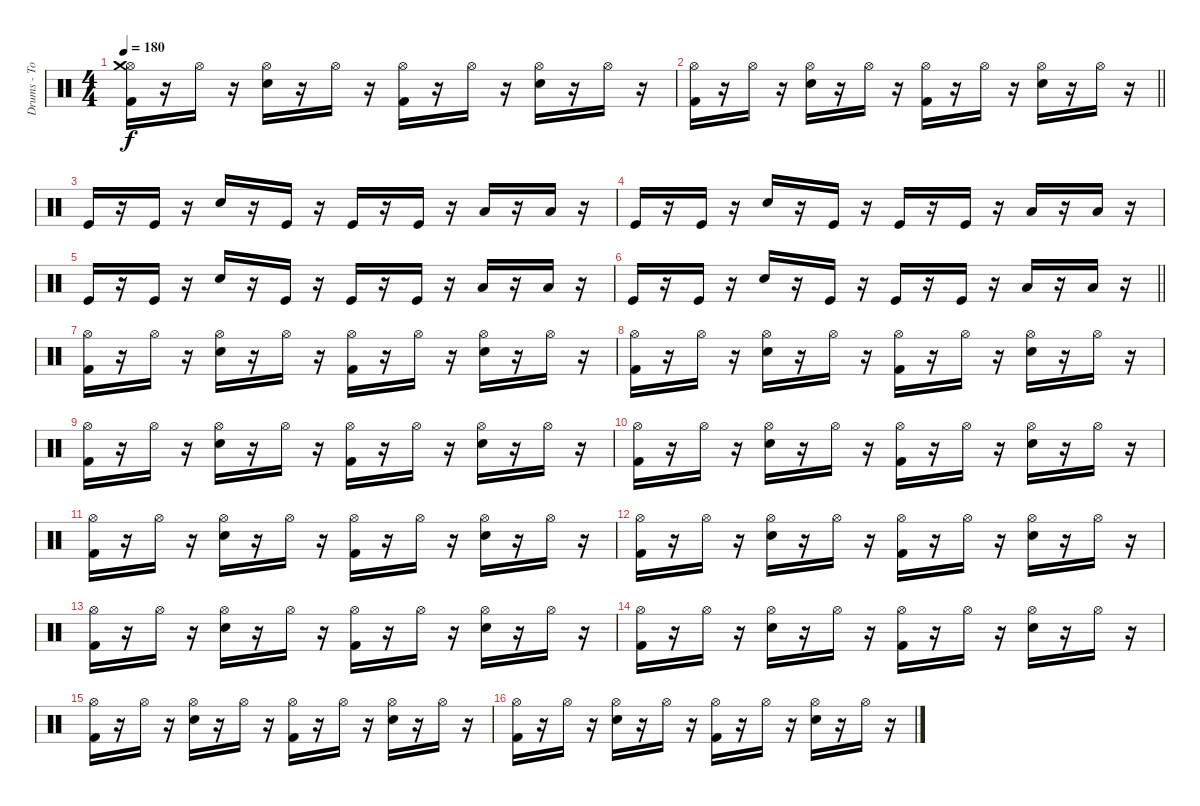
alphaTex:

\track ("Drums - Tommy Ramone" "Drums - To") {instrument percussion}
\staff {score}
\articulation defaults
\ts (4 4)
\tempo 180
\clef neutral
\ks c
("Hi-Hat (open)" "Crash medium (hit)" "Kick (hit) 2").16{dy f} r.16 "Hi-Hat (open)".16 r.16 ("Hi-Hat (open)" "Electric Snare (hit)").16 r.16 "Hi-Hat (open)".16 r.16 ("Hi-Hat (open)" "Kick (hit) 2").16 r.16 "Hi-Hat (open)".16 r.16 ("Hi-Hat (open)" "Electric Snare (hit)").16 r.16 "Hi-Hat (open)".16 r.16 |
\barLineRight lightlight
("Hi-Hat (open)" "Kick (hit) 2").16 r.16 "Hi-Hat (open)".16 r.16 ("Hi-Hat (open)" "Electric Snare (hit)").16 r.16 "Hi-Hat (open)".16 r.16 ("Hi-Hat (open)" "Kick (hit) 2").16 r.16 "Hi-Hat (open)".16 r.16 ("Hi-Hat (open)" "Electric Snare (hit)").16 r.16 "Hi-Hat (open)".16 r.16 |
"Kick (hit)".16 r.16 "Kick (hit)".16 r.16 "Electric Snare (hit)".16 r.16 "Kick (hit)".16 r.16 "Kick (hit)".16 r.16 "Kick (hit)".16 r.16 "Low Floor Tom (hit)".16 r.16 "Low Floor Tom (hit)".16 r.16 |
"Kick (hit)".16 r.16 "Kick (hit)".16 r.16 "Electric Snare (hit)".16 r.16 "Kick (hit)".16 r.16 "Kick (hit)".16 r.16 "Kick (hit)".16 r.16 "Low Floor Tom (hit)".16 r.16 "Low Floor Tom (hit)".16 r.16 |
"Kick (hit)".16 r.16 "Kick (hit)".16 r.16 "Electric Snare (hit)".16 r.16 "Kick (hit)".16 r.16 "Kick (hit)".16 r.16 "Kick (hit)".16 r.16 "Low Floor Tom (hit)".16 r.16 "Low Floor Tom (hit)".16 r.16 |
\barLineRight lightlight "Kick (hit)".16
r.16 "Kick (hit)".16 r.16 "Electric Snare (hit)".16 r.16 "Kick (hit)".16 r.16 "Kick (hit)".16 r.16 "Kick (hit)".16 r.16 "Low Floor Tom (hit)".16 r.16 "Low Floor Tom (hit)".16 r.16 |
("Hi-Hat (open)" "Kick (hit) 2").16 r.16 "Hi-Hat (open)".16 r.16 ("Hi-Hat (open)" "Electric Snare (hit)").16 r.16 "Hi-Hat (open)".16 r.16 ("Hi-Hat (open)" "Kick (hit) 2").16 r.16 "Hi-Hat (open)".16 r.16 ("Hi-Hat (open)" "Electric Snare (hit)").16 r.16 "Hi-Hat (open)".16 r.16 |
("Hi-Hat (open)" "Kick (hit) 2").16 r.16 "Hi-Hat (open)".16 r.16 ("Hi-Hat (open)" "Electric Snare (hit)").16 r.16 "Hi-Hat (open)".16 r.16 ("Hi-Hat (open)" "Kick (hit) 2").16 r.16 "Hi-Hat (open)".16 r.16 ("Hi-Hat (open)" "Electric Snare (hit)").16 r.16 "Hi-Hat (open)".16 r.16 |
("Hi-Hat (open)" "Kick (hit) 2").16 r.16 "Hi-Hat (open)".16 r.16 ("Hi-Hat (open)" "Electric Snare (hit)").16 r.16 "Hi-Hat (open)".16 r.16 ("Hi-Hat (open)" "Kick (hit) 2").16 r.16 "Hi-Hat (open)".16 r.16 ("Hi-Hat (open)" "Electric Snare (hit)").16 r.16 "Hi-Hat (open)".16 r.16 |
("Hi-Hat (open)" "Kick (hit) 2").16 r.16 "Hi-Hat (open)".16 r.16 ("Hi-Hat (open)" "Electric Snare (hit)").16 r.16 "Hi-Hat (open)".16 r.16 ("Hi-Hat (open)" "Kick (hit) 2").16 r.16 "Hi-Hat (open)".16 r.16 ("Hi-Hat (open)" "Electric Snare (hit)").16 r.16 "Hi-Hat (open)".16 r.16 |
("Hi-Hat (open)" "Kick (hit) 2").16 r.16 "Hi-Hat (open)".16 r.16 ("Hi-Hat (open)" "Electric Snare (hit)").16 r.16 "Hi-Hat (open)".16 r.16 ("Hi-Hat (open)" "Kick (hit) 2").16 r.16 "Hi-Hat (open)".16 r.16 ("Hi-Hat (open)" "Electric Snare (hit)").16 r.16 "Hi-Hat (open)".16 r.16 |
("Hi-Hat (open)" "Kick (hit) 2").16 r.16 "Hi-Hat (open)".16 r.16 ("Hi-Hat (open)" "Electric Snare (hit)").16 r.16 "Hi-Hat (open)".16 r.16 ("Hi-Hat (open)" "Kick (hit) 2").16 r.16 "Hi-Hat (open)".16 r.16 ("Hi-Hat (open)" "Electric Snare (hit)").16 r.16 "Hi-Hat (open)".16 r.16 |
("Hi-Hat (open)" "Kick (hit) 2").16 r.16 "Hi-Hat (open)".16 r.16 ("Hi-Hat (open)" "Electric Snare (hit)").16 r.16 "Hi-Hat (open)".16 r.16 ("Hi-Hat (open)" "Kick (hit) 2").16 r.16 "Hi-Hat (open)".16 r.16 ("Hi-Hat (open)" "Electric Snare (hit)").16 r.16 "Hi-Hat (open)".16 r.16 |
("Hi-Hat (open)" "Kick (hit) 2").16 r.16 "Hi-Hat (open)".16 r.16 ("Hi-Hat (open)" "Electric Snare (hit)").16 r.16 "Hi-Hat (open)".16 r.16 ("Hi-Hat (open)" "Kick (hit) 2").16 r.16 "Hi-Hat (open)".16 r.16 ("Hi-Hat (open)" "Electric Snare (hit)").16 r.16 "Hi-Hat (open)".16 r.16 |
("Hi-Hat (open)" "Kick (hit) 2").16 r.16 "Hi-Hat (open)".16 r.16 ("Hi-Hat (open)" "Electric Snare (hit)").16 r.16 "Hi-Hat (open)".16 r.16 ("Hi-Hat (open)" "Kick (hit) 2").16 r.16 "Hi-Hat (open)".16 r.16 ("Hi-Hat (open)" "Electric Snare (hit)").16 r.16 "Hi-Hat (open)".16 r.16 |
("Hi-Hat (open)" "Kick (hit) 2").16 r.16 "Hi-Hat (open)".16 r.16 ("Hi-Hat (open)" "Electric Snare (hit)").16 r.16 "Hi-Hat (open)".16 r.16 ("Hi-Hat (open)" "Kick (hit) 2").16 r.16 "Hi-Hat (open)".16 r.16 ("Hi-Hat (open)" "Electric Snare (hit)").16 r.16 "Hi-Hat (open)".16 r.16
